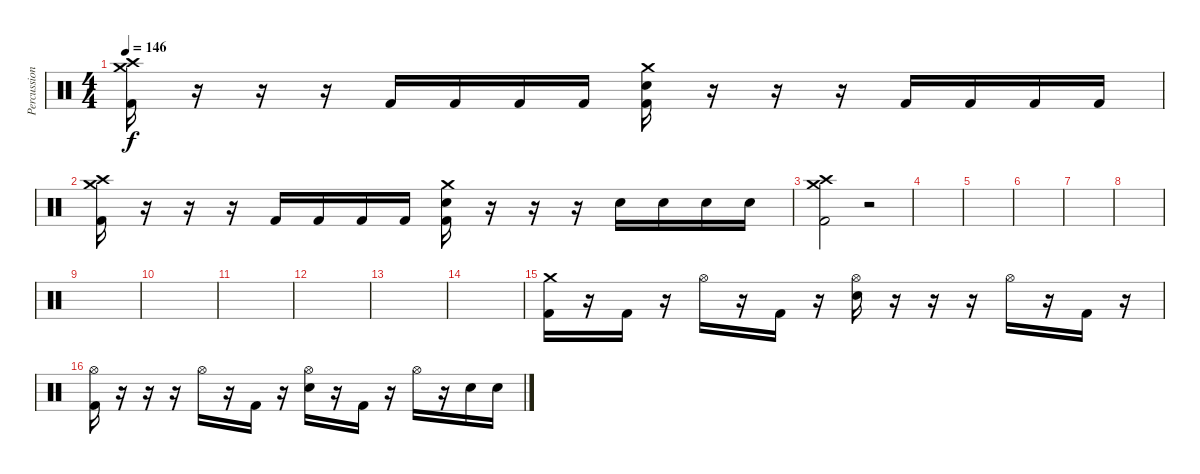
\track ("Percussion" "Percussion") {instrument percussion}
\staff {score}
\articulation defaults
\ts (4 4)
\tempo 146
\clef neutral
\ks c
("Crash high (hit)" "Crash medium (hit)" "Kick (hit) 2").16{dy f} r.16 r.16 r.16 "Kick (hit) 2".16 "Kick (hit) 2".16 "Kick (hit) 2".16 "Kick (hit) 2".16 ("Crash medium (hit)" "Snare (hit) 2" "Kick (hit) 2").16 r.16 r.16 r.16 "Kick (hit) 2".16 "Kick (hit) 2".16 "Kick (hit) 2".16 "Kick (hit) 2".16 |
("Crash high (hit)" "Crash medium (hit)" "Kick (hit) 2").16 r.16 r.16 r.16 "Kick (hit) 2".16 "Kick (hit) 2".16 "Kick (hit) 2".16 "Kick (hit) 2".16 ("Crash medium (hit)" "Snare (hit) 2" "Kick (hit) 2").16 r.16 r.16 r.16 "Snare (hit) 2".16 "Snare (hit) 2".16 "Snare (hit) 2".16 "Snare (hit) 2".16 |
("Crash high (hit)" "Crash medium (hit)" "Kick (hit) 2").2 r.2 |
|
|
|
|
|
|
|
|
|
|
|
("Crash medium (hit)" "Kick (hit) 2").16 r.16 "Kick (hit) 2".16 r.16 "Hi-Hat (open)".16 r.16 "Kick (hit) 2".16 r.16 ("Hi-Hat (open)" "Snare (hit) 2").16 r.16 r.16 r.16 "Hi-Hat (open)".16 r.16 "Kick (hit) 2".16 r.16 |
("Hi-Hat (open)" "Kick (hit) 2").16 r.16 r.16 r.16 "Hi-Hat (open)".16 r.16 "Kick (hit) 2".16 r.16 ("Hi-Hat (open)" "Snare (hit) 2").16 r.16 "Kick (hit) 2".16 r.16 "Hi-Hat (open)".16 r.16 "Snare (hit) 2".16 "Snare (hit) 2".16
